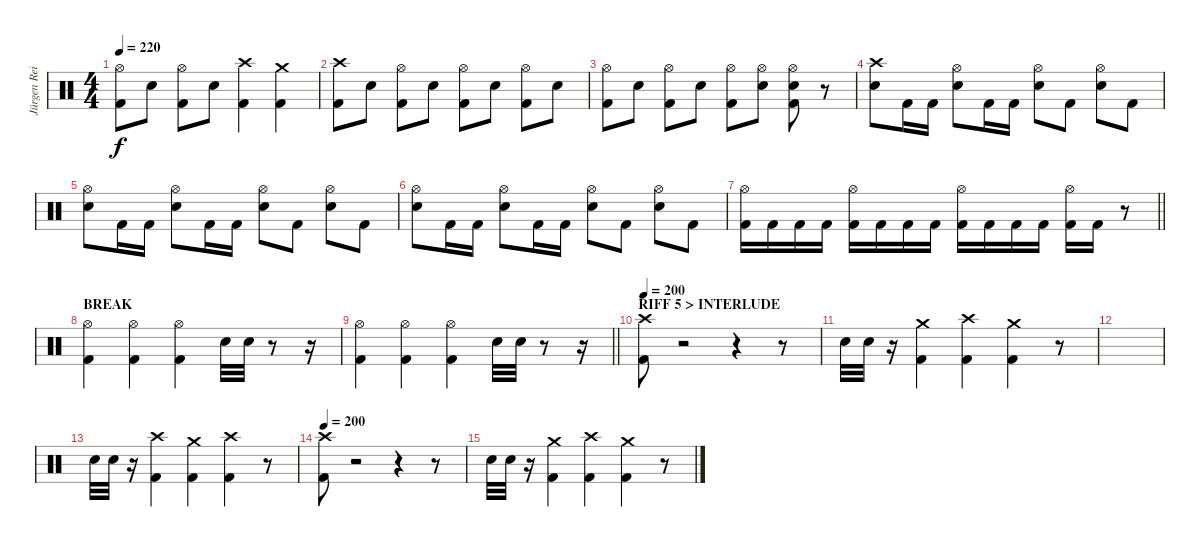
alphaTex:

\track ("Jürgen Reil" "Jürgen Rei") {instrument percussion}
\staff {score}
\articulation defaults
\ts (4 4)
\tempo 220
\clef neutral
\ks c
("Hi-Hat (open)" "Kick (hit) 2").8{dy f} "Electric Snare (hit)".8 ("Hi-Hat (open)" "Kick (hit) 2").8 "Electric Snare (hit)".8 ("Crash high (hit)" "Kick (hit) 2").4 ("Crash medium (hit)" "Kick (hit) 2").4 |
("Crash high (hit)" "Kick (hit) 2").8 "Electric Snare (hit)".8 ("Hi-Hat (open)" "Kick (hit) 2").8 "Electric Snare (hit)".8 ("Hi-Hat (open)" "Kick (hit) 2").8 "Electric Snare (hit)".8 ("Hi-Hat (open)" "Kick (hit) 2").8 "Electric Snare (hit)".8 |
("Hi-Hat (open)" "Kick (hit) 2").8 "Electric Snare (hit)".8 ("Hi-Hat (open)" "Kick (hit) 2").8 "Electric Snare (hit)".8 ("Hi-Hat (open)" "Kick (hit) 2").8 ("Hi-Hat (open)" "Electric Snare (hit)").8 ("Hi-Hat (open)" "Electric Snare (hit)" "Kick (hit) 2").8 r.8 |
("Crash high (hit)" "Electric Snare (hit)").8 "Kick (hit) 2".16 "Kick (hit) 2".16 ("Hi-Hat (open)" "Electric Snare (hit)").8 "Kick (hit) 2".16 "Kick (hit) 2".16 ("Hi-Hat (open)" "Electric Snare (hit)").8 "Kick (hit) 2".8 ("Hi-Hat (open)" "Electric Snare (hit)").8 "Kick (hit) 2".8 |
("Hi-Hat (open)" "Electric Snare (hit)").8 "Kick (hit) 2".16 "Kick (hit) 2".16 ("Hi-Hat (open)" "Electric Snare (hit)").8 "Kick (hit) 2".16 "Kick (hit) 2".16 ("Hi-Hat (open)" "Electric Snare (hit)").8 "Kick (hit) 2".8 ("Hi-Hat (open)" "Electric Snare (hit)").8 "Kick (hit) 2".8 |
("Hi-Hat (open)" "Electric Snare (hit)").8 "Kick (hit) 2".16 "Kick (hit) 2".16 ("Hi-Hat (open)" "Electric Snare (hit)").8 "Kick (hit) 2".16 "Kick (hit) 2".16 ("Hi-Hat (open)" "Electric Snare (hit)").8 "Kick (hit) 2".8 ("Hi-Hat (open)" "Electric Snare (hit)").8 "Kick (hit) 2".8 |
\barLineRight lightlight
("Hi-Hat (open)" "Kick (hit) 2").16 "Kick (hit) 2".16 "Kick (hit) 2".16 "Kick (hit) 2".16 ("Hi-Hat (open)" "Kick (hit) 2").16 "Kick (hit) 2".16 "Kick (hit) 2".16 "Kick (hit) 2".16 ("Hi-Hat (open)" "Kick (hit) 2").16 "Kick (hit) 2".16 "Kick (hit) 2".16 "Kick (hit) 2".16 ("Hi-Hat (open)" "Kick (hit) 2").16 "Kick (hit) 2".16 r.8 |
\section ("" "BREAK")
("Hi-Hat (open)" "Kick (hit) 2").4 ("Hi-Hat (open)" "Kick (hit) 2").4 ("Hi-Hat (open)" "Kick (hit) 2").4 "Electric Snare (hit)".32 "Electric Snare (hit)".32 r.8 r.16 |
\barLineRight lightlight
("Hi-Hat (open)" "Kick (hit) 2").4 ("Hi-Hat (open)" "Kick (hit) 2").4 ("Hi-Hat (open)" "Kick (hit) 2").4 "Electric Snare (hit)".32 "Electric Snare (hit)".32 r.8 r.16 |
\section ("" "RIFF 5 > INTERLUDE")
\tempo 200
("Crash high (hit)" "Kick (hit) 2").8 r.2 r.4 r.8 |
"Electric Snare (hit)".32 "Electric Snare (hit)".32 r.16 ("Crash medium (hit)" "Kick (hit) 2").4 ("Crash high (hit)" "Kick (hit) 2").4 ("Crash medium (hit)" "Kick (hit) 2").4 r.8 |
|
"Electric Snare (hit)".32 "Electric Snare (hit)".32 r.16 ("Crash high (hit)" "Kick (hit) 2").4 ("Crash medium (hit)" "Kick (hit) 2").4 ("Crash high (hit)" "Kick (hit) 2").4 r.8 |
\tempo 200
("Crash high (hit)" "Kick (hit) 2").8 r.2 r.4 r.8 |
"Electric Snare (hit)".32 "Electric Snare (hit)".32 r.16 ("Crash medium (hit)" "Kick (hit) 2").4 ("Crash high (hit)" "Kick (hit) 2").4 ("Crash medium (hit)" "Kick (hit) 2").4 r.8
